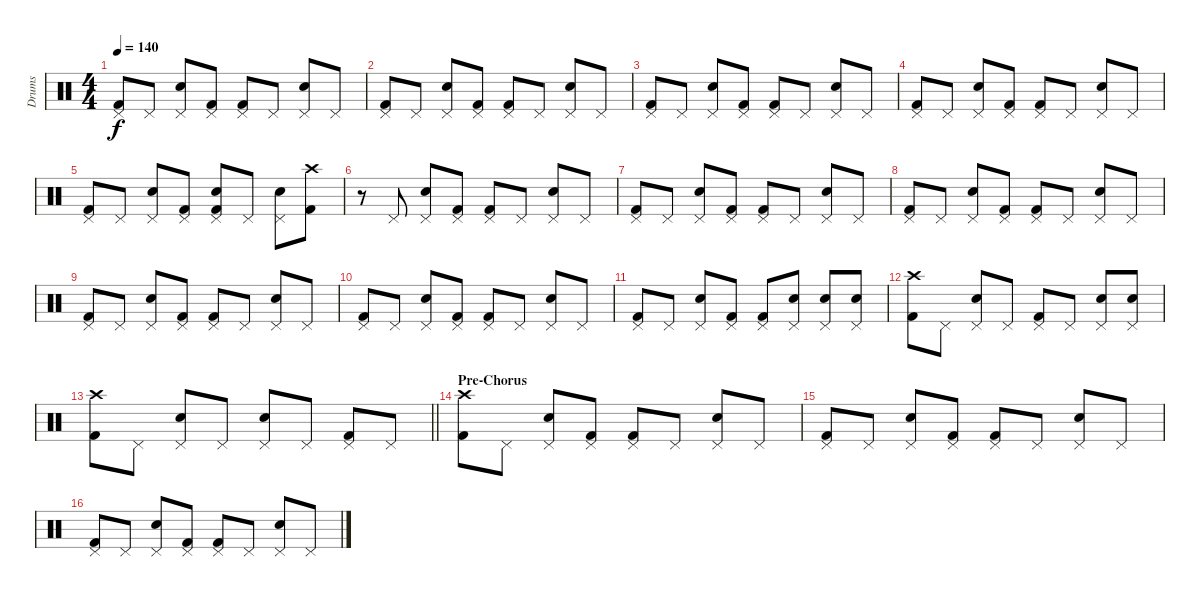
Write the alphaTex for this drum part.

\track ("Drums" "Drums") {instrument percussion}
\staff {score}
\articulation defaults
\ts (4 4)
\tempo 140
\clef neutral
\ks c
("Pedal Hi-Hat (hit)" "Kick (hit) 2").8{dy f} "Pedal Hi-Hat (hit)".8 ("Pedal Hi-Hat (hit)" "Electric Snare (hit)").8 ("Pedal Hi-Hat (hit)" "Kick (hit) 2").8 ("Pedal Hi-Hat (hit)" "Kick (hit) 2").8 "Pedal Hi-Hat (hit)".8 ("Pedal Hi-Hat (hit)" "Electric Snare (hit)").8 "Pedal Hi-Hat (hit)".8 |
("Pedal Hi-Hat (hit)" "Kick (hit) 2").8 "Pedal Hi-Hat (hit)".8 ("Pedal Hi-Hat (hit)" "Electric Snare (hit)").8 ("Pedal Hi-Hat (hit)" "Kick (hit) 2").8 ("Pedal Hi-Hat (hit)" "Kick (hit) 2").8 "Pedal Hi-Hat (hit)".8 ("Pedal Hi-Hat (hit)" "Electric Snare (hit)").8 "Pedal Hi-Hat (hit)".8 |
("Pedal Hi-Hat (hit)" "Kick (hit) 2").8 "Pedal Hi-Hat (hit)".8 ("Pedal Hi-Hat (hit)" "Electric Snare (hit)").8 ("Pedal Hi-Hat (hit)" "Kick (hit) 2").8 ("Pedal Hi-Hat (hit)" "Kick (hit) 2").8 "Pedal Hi-Hat (hit)".8 ("Pedal Hi-Hat (hit)" "Electric Snare (hit)").8 "Pedal Hi-Hat (hit)".8 |
("Pedal Hi-Hat (hit)" "Kick (hit) 2").8 "Pedal Hi-Hat (hit)".8 ("Pedal Hi-Hat (hit)" "Electric Snare (hit)").8 ("Pedal Hi-Hat (hit)" "Kick (hit) 2").8 ("Pedal Hi-Hat (hit)" "Kick (hit) 2").8 "Pedal Hi-Hat (hit)".8 ("Pedal Hi-Hat (hit)" "Electric Snare (hit)").8 "Pedal Hi-Hat (hit)".8 |
("Pedal Hi-Hat (hit)" "Kick (hit) 2").8 "Pedal Hi-Hat (hit)".8 ("Pedal Hi-Hat (hit)" "Electric Snare (hit)").8 ("Pedal Hi-Hat (hit)" "Kick (hit) 2").8 ("Pedal Hi-Hat (hit)" "Electric Snare (hit)" "Kick (hit) 2").8 "Pedal Hi-Hat (hit)".8 ("Pedal Hi-Hat (hit)" "Electric Snare (hit)").8 ("Crash high (hit)" "Kick (hit) 2").8 |
r.8 "Pedal Hi-Hat (hit)".8 ("Pedal Hi-Hat (hit)" "Electric Snare (hit)").8 ("Pedal Hi-Hat (hit)" "Kick (hit) 2").8 ("Pedal Hi-Hat (hit)" "Kick (hit) 2").8 "Pedal Hi-Hat (hit)".8 ("Pedal Hi-Hat (hit)" "Electric Snare (hit)").8 "Pedal Hi-Hat (hit)".8 |
("Pedal Hi-Hat (hit)" "Kick (hit) 2").8 "Pedal Hi-Hat (hit)".8 ("Pedal Hi-Hat (hit)" "Electric Snare (hit)").8 ("Pedal Hi-Hat (hit)" "Kick (hit) 2").8 ("Pedal Hi-Hat (hit)" "Kick (hit) 2").8 "Pedal Hi-Hat (hit)".8 ("Pedal Hi-Hat (hit)" "Electric Snare (hit)").8 "Pedal Hi-Hat (hit)".8 |
("Pedal Hi-Hat (hit)" "Kick (hit) 2").8 "Pedal Hi-Hat (hit)".8 ("Pedal Hi-Hat (hit)" "Electric Snare (hit)").8 ("Pedal Hi-Hat (hit)" "Kick (hit) 2").8 ("Pedal Hi-Hat (hit)" "Kick (hit) 2").8 "Pedal Hi-Hat (hit)".8 ("Pedal Hi-Hat (hit)" "Electric Snare (hit)").8 "Pedal Hi-Hat (hit)".8 |
("Pedal Hi-Hat (hit)" "Kick (hit) 2").8 "Pedal Hi-Hat (hit)".8 ("Pedal Hi-Hat (hit)" "Electric Snare (hit)").8 ("Pedal Hi-Hat (hit)" "Kick (hit) 2").8 ("Pedal Hi-Hat (hit)" "Kick (hit) 2").8 "Pedal Hi-Hat (hit)".8 ("Pedal Hi-Hat (hit)" "Electric Snare (hit)").8 "Pedal Hi-Hat (hit)".8 |
("Pedal Hi-Hat (hit)" "Kick (hit) 2").8 "Pedal Hi-Hat (hit)".8 ("Pedal Hi-Hat (hit)" "Electric Snare (hit)").8 ("Pedal Hi-Hat (hit)" "Kick (hit) 2").8 ("Pedal Hi-Hat (hit)" "Kick (hit) 2").8 "Pedal Hi-Hat (hit)".8 ("Pedal Hi-Hat (hit)" "Electric Snare (hit)").8 "Pedal Hi-Hat (hit)".8 |
("Pedal Hi-Hat (hit)" "Kick (hit) 2").8 "Pedal Hi-Hat (hit)".8 ("Pedal Hi-Hat (hit)" "Electric Snare (hit)").8 ("Pedal Hi-Hat (hit)" "Kick (hit) 2").8 ("Pedal Hi-Hat (hit)" "Kick (hit) 2").8 ("Pedal Hi-Hat (hit)" "Electric Snare (hit)").8 ("Pedal Hi-Hat (hit)" "Electric Snare (hit)").8 ("Pedal Hi-Hat (hit)" "Electric Snare (hit)").8 |
("Crash high (hit)" "Kick (hit) 2").8 "Pedal Hi-Hat (hit)".8 ("Pedal Hi-Hat (hit)" "Electric Snare (hit)").8 "Pedal Hi-Hat (hit)".8 ("Pedal Hi-Hat (hit)" "Kick (hit) 2").8 "Pedal Hi-Hat (hit)".8 ("Pedal Hi-Hat (hit)" "Electric Snare (hit)").8 ("Pedal Hi-Hat (hit)" "Electric Snare (hit)").8 |
\barLineRight lightlight
("Crash high (hit)" "Kick (hit) 2").8 "Pedal Hi-Hat (hit)".8 ("Pedal Hi-Hat (hit)" "Electric Snare (hit)").8 "Pedal Hi-Hat (hit)".8 ("Pedal Hi-Hat (hit)" "Electric Snare (hit)").8 "Pedal Hi-Hat (hit)".8 ("Pedal Hi-Hat (hit)" "Kick (hit) 2").8 "Pedal Hi-Hat (hit)".8 |
\section ("" "Pre-Chorus")
("Crash high (hit)" "Kick (hit) 2").8 "Pedal Hi-Hat (hit)".8 ("Pedal Hi-Hat (hit)" "Electric Snare (hit)").8 ("Pedal Hi-Hat (hit)" "Kick (hit) 2").8 ("Pedal Hi-Hat (hit)" "Kick (hit) 2").8 "Pedal Hi-Hat (hit)".8 ("Pedal Hi-Hat (hit)" "Electric Snare (hit)").8 "Pedal Hi-Hat (hit)".8 |
("Pedal Hi-Hat (hit)" "Kick (hit) 2").8 "Pedal Hi-Hat (hit)".8 ("Pedal Hi-Hat (hit)" "Electric Snare (hit)").8 ("Pedal Hi-Hat (hit)" "Kick (hit) 2").8 ("Pedal Hi-Hat (hit)" "Kick (hit) 2").8 "Pedal Hi-Hat (hit)".8 ("Pedal Hi-Hat (hit)" "Electric Snare (hit)").8 "Pedal Hi-Hat (hit)".8 |
("Pedal Hi-Hat (hit)" "Kick (hit) 2").8 "Pedal Hi-Hat (hit)".8 ("Pedal Hi-Hat (hit)" "Electric Snare (hit)").8 ("Pedal Hi-Hat (hit)" "Kick (hit) 2").8 ("Pedal Hi-Hat (hit)" "Kick (hit) 2").8 "Pedal Hi-Hat (hit)".8 ("Pedal Hi-Hat (hit)" "Electric Snare (hit)").8 "Pedal Hi-Hat (hit)".8
